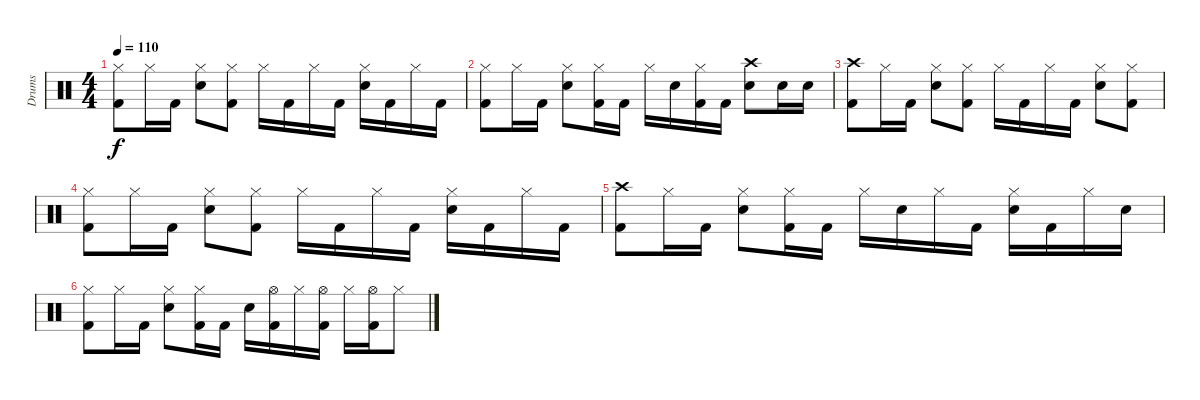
\track ("Drums" "Drums") {instrument percussion}
\staff {score}
\articulation defaults
\ts (4 4)
\tempo 110
\clef neutral
\ks c
("Hi-Hat (closed)" "Kick (hit) 2").8{dy f} "Hi-Hat (closed)".16 "Kick (hit) 2".16 ("Hi-Hat (closed)" "Electric Snare (hit)").8 ("Hi-Hat (closed)" "Kick (hit) 2").8 "Hi-Hat (closed)".16 "Kick (hit) 2".16 "Hi-Hat (closed)".16 "Kick (hit) 2".16 ("Hi-Hat (closed)" "Electric Snare (hit)").16 "Kick (hit) 2".16 "Hi-Hat (closed)".16 "Kick (hit) 2".16 |
("Hi-Hat (closed)" "Kick (hit) 2").8 "Hi-Hat (closed)".16 "Kick (hit) 2".16 ("Hi-Hat (closed)" "Electric Snare (hit)").8 ("Hi-Hat (closed)" "Kick (hit) 2").16 "Kick (hit) 2".16 "Hi-Hat (closed)".16 "Electric Snare (hit)".16 ("Hi-Hat (closed)" "Kick (hit) 2").16 "Kick (hit) 2".16 ("Crash high (hit)" "Electric Snare (hit)").8 "Electric Snare (hit)".16 "Electric Snare (hit)".16 |
("Crash high (hit)" "Kick (hit) 2").8 "Hi-Hat (closed)".16 "Kick (hit) 2".16 ("Hi-Hat (closed)" "Electric Snare (hit)").8 ("Hi-Hat (closed)" "Kick (hit) 2").8 "Hi-Hat (closed)".16 "Kick (hit) 2".16 "Hi-Hat (closed)".16 "Kick (hit) 2".16 ("Hi-Hat (closed)" "Electric Snare (hit)").8 ("Hi-Hat (closed)" "Kick (hit) 2").8 |
("Hi-Hat (closed)" "Kick (hit) 2").8 "Hi-Hat (closed)".16 "Kick (hit) 2".16 ("Hi-Hat (closed)" "Electric Snare (hit)").8 ("Hi-Hat (closed)" "Kick (hit) 2").8 "Hi-Hat (closed)".16 "Kick (hit) 2".16 "Hi-Hat (closed)".16 "Kick (hit) 2".16 ("Hi-Hat (closed)" "Electric Snare (hit)").16 "Kick (hit) 2".16 "Hi-Hat (closed)".16 "Kick (hit) 2".16 |
("Crash high (hit)" "Kick (hit) 2").8 "Hi-Hat (closed)".16 "Kick (hit) 2".16 ("Hi-Hat (closed)" "Electric Snare (hit)").8 ("Hi-Hat (closed)" "Kick (hit) 2").16 "Kick (hit) 2".16 "Hi-Hat (closed)".16 "Electric Snare (hit)".16 "Hi-Hat (closed)".16 "Kick (hit) 2".16 ("Hi-Hat (closed)" "Electric Snare (hit)").16 "Kick (hit) 2".16 "Hi-Hat (closed)".16 "Electric Snare (hit)".16 |
("Hi-Hat (closed)" "Kick (hit) 2").8 "Hi-Hat (closed)".16 "Kick (hit) 2".16 ("Hi-Hat (closed)" "Electric Snare (hit)").8 ("Hi-Hat (closed)" "Kick (hit) 2").16 "Kick (hit) 2".16 "Electric Snare (hit)".16 ("Hi-Hat (open)" "Kick (hit) 2").16 "Hi-Hat (closed)".16 ("Hi-Hat (open)" "Kick (hit) 2").16 "Hi-Hat (closed)".16 ("Hi-Hat (open)" "Kick (hit) 2").16 "Hi-Hat (closed)".8
